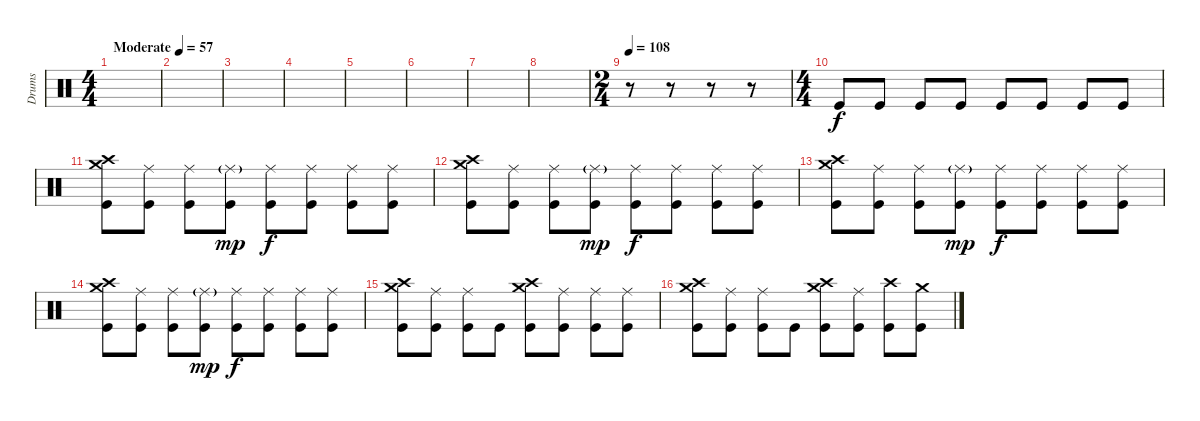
\track ("Drums" "Drums") {instrument percussion}
\staff {score}
\articulation defaults
\ts (4 4)
\tempo (57 "Moderate")
\clef neutral
\ks c
|
|
|
|
|
|
|
|
\ts (2 4)
\tempo 108
r.8 r.8 r.8 r.8 |
\ts (4 4)
"Kick (hit)".8 "Kick (hit)".8 "Kick (hit)".8 "Kick (hit)".8 "Kick (hit)".8 "Kick (hit)".8 "Kick (hit)".8 "Kick (hit)".8 |
("Crash high (hit)" "Crash medium (hit)" "Kick (hit)").8 ("Ride (middle)" "Kick (hit)").8 ("Ride (middle)" "Kick (hit)").8 ("Ride (middle)"{g} "Kick (hit)").8{dy mp} ("Ride (middle)" "Kick (hit)").8{dy f} ("Ride (middle)" "Kick (hit)").8 ("Ride (middle)" "Kick (hit)").8 ("Ride (middle)" "Kick (hit)").8 |
("Crash high (hit)" "Crash medium (hit)" "Kick (hit)").8 ("Ride (middle)" "Kick (hit)").8 ("Ride (middle)" "Kick (hit)").8 ("Ride (middle)"{g} "Kick (hit)").8{dy mp} ("Ride (middle)" "Kick (hit)").8{dy f} ("Ride (middle)" "Kick (hit)").8 ("Ride (middle)" "Kick (hit)").8 ("Ride (middle)" "Kick (hit)").8 |
("Crash high (hit)" "Crash medium (hit)" "Kick (hit)").8 ("Ride (middle)" "Kick (hit)").8 ("Ride (middle)" "Kick (hit)").8 ("Ride (middle)"{g} "Kick (hit)").8{dy mp} ("Ride (middle)" "Kick (hit)").8{dy f} ("Ride (middle)" "Kick (hit)").8 ("Ride (middle)" "Kick (hit)").8 ("Ride (middle)" "Kick (hit)").8 |
("Crash high (hit)" "Crash medium (hit)" "Kick (hit)").8 ("Ride (middle)" "Kick (hit)").8 ("Ride (middle)" "Kick (hit)").8 ("Ride (middle)"{g} "Kick (hit)").8{dy mp} ("Ride (middle)" "Kick (hit)").8{dy f} ("Ride (middle)" "Kick (hit)").8 ("Ride (middle)" "Kick (hit)").8 ("Ride (middle)" "Kick (hit)").8 |
("Crash high (hit)" "Crash medium (hit)" "Kick (hit)").8 ("Ride (middle)" "Kick (hit)").8 ("Ride (middle)" "Kick (hit)").8 "Kick (hit)".8 ("Crash high (hit)" "Crash medium (hit)" "Kick (hit)").8 ("Ride (middle)" "Kick (hit)").8 ("Ride (middle)" "Kick (hit)").8 ("Ride (middle)" "Kick (hit)").8 |
("Crash high (hit)" "Crash medium (hit)" "Kick (hit)").8 ("Ride (middle)" "Kick (hit)").8 ("Ride (middle)" "Kick (hit)").8 "Kick (hit)".8 ("Crash medium (hit)" "Crash high (hit)" "Kick (hit)").8 ("Ride (middle)" "Kick (hit)").8 ("Crash high (hit)" "Kick (hit)").8 ("Crash medium (hit)" "Kick (hit)").8
